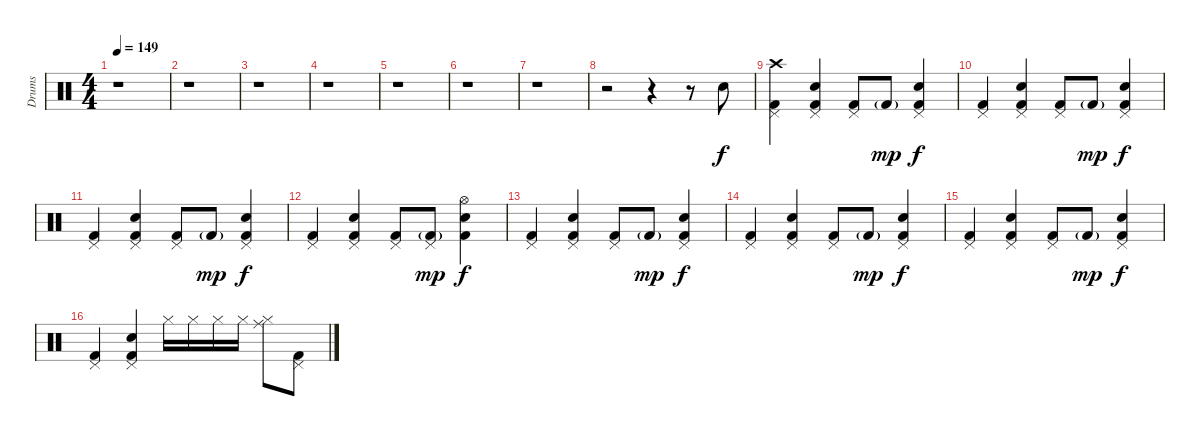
\track ("Drums" "Drums") {instrument percussion}
\staff {score}
\articulation defaults
\ts (4 4)
\tempo 149
\clef neutral
\ks c
r.1{dy f} |
r.1 |
r.1 |
r.1 |
r.1 |
r.1 |
r.1 |
r.2 r.4 r.8 "Snare (hit) 2".8 |
("Crash high (hit)" "Kick (hit) 2" "Pedal Hi-Hat (hit)").4 ("Electric Snare (hit)" "Kick (hit) 2" "Pedal Hi-Hat (hit)").4 ("Kick (hit) 2" "Pedal Hi-Hat (hit)").8 "Kick (hit) 2"{g}.8{dy mp} ("Electric Snare (hit)" "Kick (hit) 2" "Pedal Hi-Hat (hit)").4{dy f} |
("Kick (hit) 2" "Pedal Hi-Hat (hit)").4 ("Electric Snare (hit)" "Kick (hit) 2" "Pedal Hi-Hat (hit)").4 ("Kick (hit) 2" "Pedal Hi-Hat (hit)").8 "Kick (hit) 2"{g}.8{dy mp} ("Electric Snare (hit)" "Kick (hit) 2" "Pedal Hi-Hat (hit)").4{dy f} |
("Kick (hit) 2" "Pedal Hi-Hat (hit)").4 ("Electric Snare (hit)" "Kick (hit) 2" "Pedal Hi-Hat (hit)").4 ("Kick (hit) 2" "Pedal Hi-Hat (hit)").8 "Kick (hit) 2"{g}.8{dy mp} ("Electric Snare (hit)" "Kick (hit) 2" "Pedal Hi-Hat (hit)").4{dy f} |
("Kick (hit) 2" "Pedal Hi-Hat (hit)").4 ("Electric Snare (hit)" "Kick (hit) 2" "Pedal Hi-Hat (hit)").4 ("Kick (hit) 2" "Pedal Hi-Hat (hit)").8 ("Kick (hit) 2"{g} "Pedal Hi-Hat (hit)").8{dy mp} ("Hi-Hat (open)" "Electric Snare (hit)" "Kick (hit) 2").4{dy f} |
("Kick (hit) 2" "Pedal Hi-Hat (hit)").4 ("Electric Snare (hit)" "Kick (hit) 2" "Pedal Hi-Hat (hit)").4 ("Kick (hit) 2" "Pedal Hi-Hat (hit)").8 "Kick (hit) 2"{g}.8{dy mp} ("Electric Snare (hit)" "Kick (hit) 2" "Pedal Hi-Hat (hit)").4{dy f} |
("Kick (hit) 2" "Pedal Hi-Hat (hit)").4 ("Electric Snare (hit)" "Kick (hit) 2" "Pedal Hi-Hat (hit)").4 ("Kick (hit) 2" "Pedal Hi-Hat (hit)").8 "Kick (hit) 2"{g}.8{dy mp} ("Electric Snare (hit)" "Kick (hit) 2" "Pedal Hi-Hat (hit)").4{dy f} |
("Kick (hit) 2" "Pedal Hi-Hat (hit)").4 ("Electric Snare (hit)" "Kick (hit) 2" "Pedal Hi-Hat (hit)").4 ("Kick (hit) 2" "Pedal Hi-Hat (hit)").8 "Kick (hit) 2"{g}.8{dy mp} ("Electric Snare (hit)" "Kick (hit) 2" "Pedal Hi-Hat (hit)").4{dy f} |
("Kick (hit) 2" "Pedal Hi-Hat (hit)").4 ("Electric Snare (hit)" "Kick (hit) 2" "Pedal Hi-Hat (hit)").4 "Hi-Hat (closed)".16 "Hi-Hat (closed)".16 "Hi-Hat (closed)".16 "Hi-Hat (closed)".16 ("Ride (middle)" "Hi-Hat (closed)").8 ("Kick (hit) 2" "Pedal Hi-Hat (hit)").8
